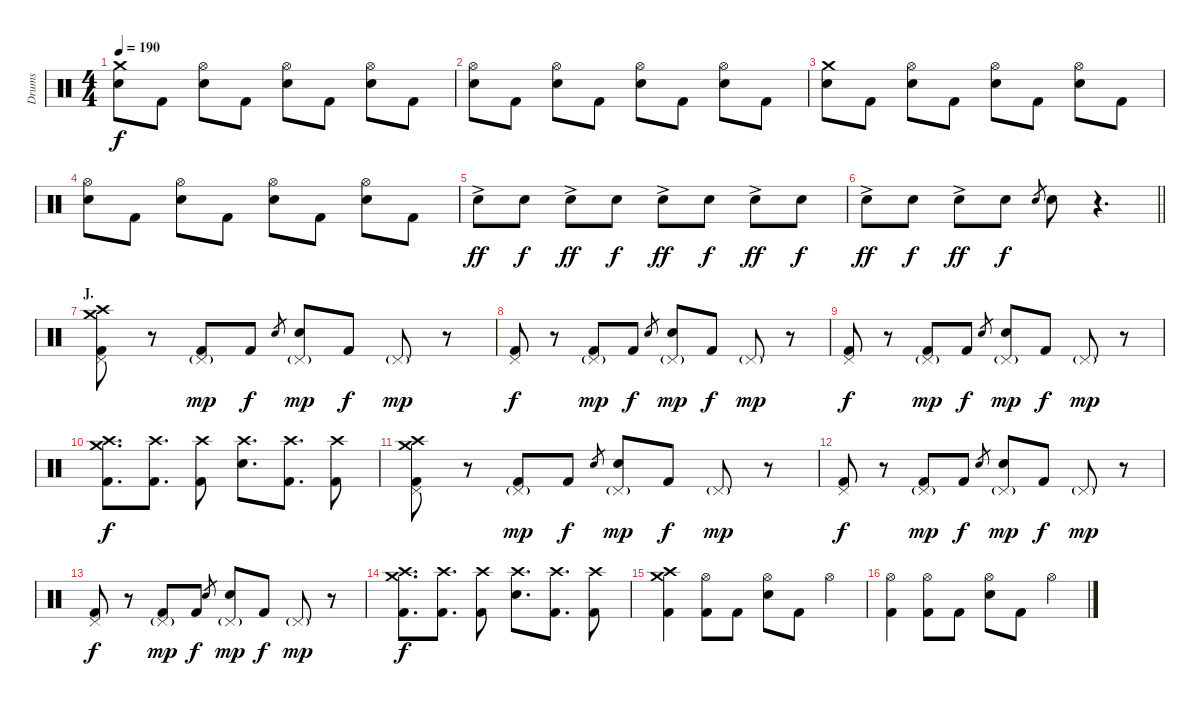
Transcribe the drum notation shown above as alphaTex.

\track ("Drums" "Drums") {instrument percussion}
\staff {score}
\articulation defaults
\ts (4 4)
\tempo 190
\clef neutral
\ks c
("Crash medium (hit)" "Electric Snare (hit)").8{dy f} "Kick (hit) 2".8 ("Hi-Hat (open)" "Electric Snare (hit)").8 "Kick (hit) 2".8 ("Hi-Hat (open)" "Electric Snare (hit)").8 "Kick (hit) 2".8 ("Hi-Hat (open)" "Electric Snare (hit)").8 "Kick (hit) 2".8 |
("Hi-Hat (open)" "Electric Snare (hit)").8 "Kick (hit) 2".8 ("Hi-Hat (open)" "Electric Snare (hit)").8 "Kick (hit) 2".8 ("Hi-Hat (open)" "Electric Snare (hit)").8 "Kick (hit) 2".8 ("Hi-Hat (open)" "Electric Snare (hit)").8 "Kick (hit) 2".8 |
("Crash medium (hit)" "Electric Snare (hit)").8 "Kick (hit) 2".8 ("Hi-Hat (open)" "Electric Snare (hit)").8 "Kick (hit) 2".8 ("Hi-Hat (open)" "Electric Snare (hit)").8 "Kick (hit) 2".8 ("Hi-Hat (open)" "Electric Snare (hit)").8 "Kick (hit) 2".8 |
("Hi-Hat (open)" "Electric Snare (hit)").8 "Kick (hit) 2".8 ("Hi-Hat (open)" "Electric Snare (hit)").8 "Kick (hit) 2".8 ("Hi-Hat (open)" "Electric Snare (hit)").8 "Kick (hit) 2".8 ("Hi-Hat (open)" "Electric Snare (hit)").8 "Kick (hit) 2".8 |
"Electric Snare (hit)"{ac}.8{dy ff} "Electric Snare (hit)".8{dy f} "Electric Snare (hit)"{ac}.8{dy ff} "Electric Snare (hit)".8{dy f} "Electric Snare (hit)"{ac}.8{dy ff} "Electric Snare (hit)".8{dy f} "Electric Snare (hit)"{ac}.8{dy ff} "Electric Snare (hit)".8{dy f} |
\barLineRight lightlight "Electric Snare (hit)"{ac}.8{dy ff} "Electric Snare (hit)".8{dy f} "Electric Snare (hit)"{ac}.8{dy ff} "Electric Snare (hit)".8{dy f} "Electric Snare (hit)".8{gr} "Electric Snare (hit)".8
r.4{d} |
\section ("" "J.")
("Crash medium (hit)" "Crash high (hit)" "Pedal Hi-Hat (hit)" "Kick (hit) 2").8 r.8 ("Pedal Hi-Hat (hit)"{g} "Kick (hit) 2").8{dy mp} "Kick (hit) 2".8{dy f} "Electric Snare (hit)".8{gr} ("Pedal Hi-Hat (hit)"{g} "Electric Snare (hit)").8{dy mp} "Kick (hit) 2".8{dy f} "Pedal Hi-Hat (hit)"{g}.8{dy mp} r.8 |
("Pedal Hi-Hat (hit)" "Kick (hit) 2").8{dy f} r.8 ("Pedal Hi-Hat (hit)"{g} "Kick (hit) 2").8{dy mp} "Kick (hit) 2".8{dy f} "Electric Snare (hit)".8{gr} ("Pedal Hi-Hat (hit)"{g} "Electric Snare (hit)").8{dy mp} "Kick (hit) 2".8{dy f} "Pedal Hi-Hat (hit)"{g}.8{dy mp} r.8 |
("Pedal Hi-Hat (hit)" "Kick (hit) 2").8{dy f} r.8 ("Pedal Hi-Hat (hit)"{g} "Kick (hit) 2").8{dy mp} "Kick (hit) 2".8{dy f} "Electric Snare (hit)".8{gr} ("Pedal Hi-Hat (hit)"{g} "Electric Snare (hit)").8{dy mp} "Kick (hit) 2".8{dy f} "Pedal Hi-Hat (hit)"{g}.8{dy mp} r.8 |
("Crash medium (hit)" "Crash high (hit)" "Kick (hit) 2").8{d dy f} ("Crash high (hit)" "Kick (hit) 2").8{d} ("Crash high (hit)" "Kick (hit) 2").8 ("Crash high (hit)" "Electric Snare (hit)").8{d} ("Crash high (hit)" "Kick (hit) 2").8{d} ("Crash high (hit)" "Kick (hit) 2").8 |
("Crash medium (hit)" "Crash high (hit)" "Pedal Hi-Hat (hit)" "Kick (hit) 2").8 r.8 ("Pedal Hi-Hat (hit)"{g} "Kick (hit) 2").8{dy mp} "Kick (hit) 2".8{dy f} "Electric Snare (hit)".8{gr} ("Pedal Hi-Hat (hit)"{g} "Electric Snare (hit)").8{dy mp} "Kick (hit) 2".8{dy f} "Pedal Hi-Hat (hit)"{g}.8{dy mp} r.8 |
("Pedal Hi-Hat (hit)" "Kick (hit) 2").8{dy f} r.8 ("Pedal Hi-Hat (hit)"{g} "Kick (hit) 2").8{dy mp} "Kick (hit) 2".8{dy f} "Electric Snare (hit)".8{gr} ("Pedal Hi-Hat (hit)"{g} "Electric Snare (hit)").8{dy mp} "Kick (hit) 2".8{dy f} "Pedal Hi-Hat (hit)"{g}.8{dy mp} r.8 |
("Pedal Hi-Hat (hit)" "Kick (hit) 2").8{dy f} r.8 ("Pedal Hi-Hat (hit)"{g} "Kick (hit) 2").8{dy mp} "Kick (hit) 2".8{dy f} "Electric Snare (hit)".8{gr} ("Pedal Hi-Hat (hit)"{g} "Electric Snare (hit)").8{dy mp} "Kick (hit) 2".8{dy f} "Pedal Hi-Hat (hit)"{g}.8{dy mp} r.8 |
("Crash medium (hit)" "Crash high (hit)" "Kick (hit) 2").8{d dy f} ("Crash high (hit)" "Kick (hit) 2").8{d} ("Crash high (hit)" "Kick (hit) 2").8 ("Crash high (hit)" "Electric Snare (hit)").8{d} ("Crash high (hit)" "Kick (hit) 2").8{d} ("Crash high (hit)" "Kick (hit) 2").8 |
("Crash medium (hit)" "Crash high (hit)" "Kick (hit) 2").4 ("Hi-Hat (open)" "Kick (hit) 2").8 "Kick (hit) 2".8 ("Hi-Hat (open)" "Electric Snare (hit)").8 "Kick (hit) 2".8 "Hi-Hat (open)".4 |
("Hi-Hat (open)" "Kick (hit) 2").4 ("Hi-Hat (open)" "Kick (hit) 2").8 "Kick (hit) 2".8 ("Hi-Hat (open)" "Electric Snare (hit)").8 "Kick (hit) 2".8 "Hi-Hat (open)".4
